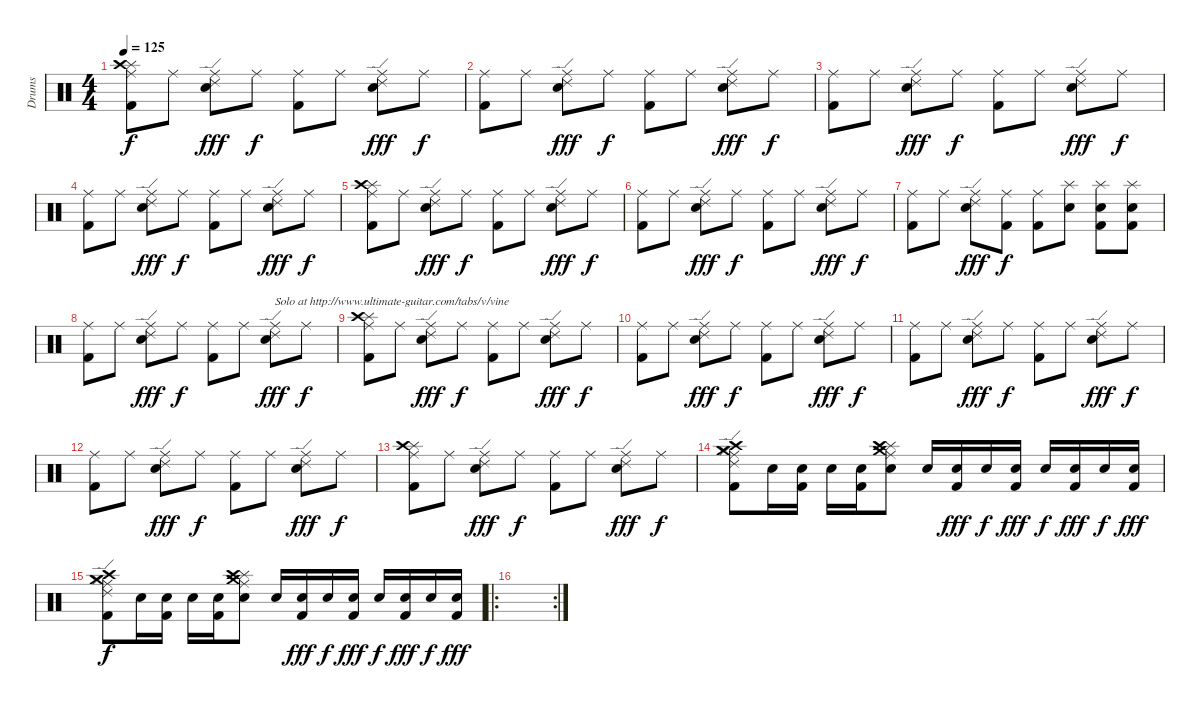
\track ("Drums" "Drums") {instrument percussion}
\staff {score}
\articulation defaults
\ts (4 4)
\tempo 125
\clef neutral
\ks c
("Ride (middle)" "Splash (hit)" "Crash high (hit)" "Kick (hit) 2").8{dy f} "Ride (middle)".8 ("Ride (middle)" "Electric Snare (hit)" "Ride (edge) 2").8{dy fff} "Ride (middle)".8{dy f} ("Ride (middle)" "Kick (hit) 2").8 "Ride (middle)".8 ("Ride (middle)" "Electric Snare (hit)" "Ride (edge) 2").8{dy fff} "Ride (middle)".8{dy f} |
("Ride (middle)" "Kick (hit) 2").8 "Ride (middle)".8 ("Ride (middle)" "Electric Snare (hit)" "Ride (edge) 2").8{dy fff} "Ride (middle)".8{dy f} ("Ride (middle)" "Kick (hit) 2").8 "Ride (middle)".8 ("Ride (middle)" "Electric Snare (hit)" "Ride (edge) 2").8{dy fff} "Ride (middle)".8{dy f} |
("Ride (middle)" "Kick (hit) 2").8 "Ride (middle)".8 ("Ride (middle)" "Electric Snare (hit)" "Ride (edge) 2").8{dy fff} "Ride (middle)".8{dy f} ("Ride (middle)" "Kick (hit) 2").8 "Ride (middle)".8 ("Ride (middle)" "Electric Snare (hit)" "Ride (edge) 2").8{dy fff} "Ride (middle)".8{dy f} |
("Ride (middle)" "Kick (hit) 2").8 "Ride (middle)".8 ("Ride (middle)" "Electric Snare (hit)" "Ride (edge) 2").8{dy fff} "Ride (middle)".8{dy f} ("Ride (middle)" "Kick (hit) 2").8 "Ride (middle)".8 ("Ride (middle)" "Electric Snare (hit)" "Ride (edge) 2").8{dy fff} "Ride (middle)".8{dy f} |
("Ride (middle)" "Splash (hit)" "Crash high (hit)" "Kick (hit) 2").8 "Ride (middle)".8 ("Ride (middle)" "Electric Snare (hit)" "Ride (edge) 2").8{dy fff} "Ride (middle)".8{dy f} ("Ride (middle)" "Kick (hit) 2").8 "Ride (middle)".8 ("Ride (middle)" "Electric Snare (hit)" "Ride (edge) 2").8{dy fff} "Ride (middle)".8{dy f} |
("Ride (middle)" "Kick (hit) 2").8 "Ride (middle)".8 ("Ride (middle)" "Electric Snare (hit)" "Ride (edge) 2").8{dy fff} "Ride (middle)".8{dy f} ("Ride (middle)" "Kick (hit) 2").8 "Ride (middle)".8 ("Ride (middle)" "Electric Snare (hit)" "Ride (edge) 2").8{dy fff} "Ride (middle)".8{dy f} |
("Ride (middle)" "Kick (hit) 2").8 "Ride (middle)".8 ("Ride (middle)" "Electric Snare (hit)" "Ride (edge) 2").8{dy fff} ("Ride (middle)" "Kick (hit) 2").8{dy f} ("Ride (middle)" "Kick (hit) 2").8 ("Splash (hit)" "Electric Snare (hit)").8 ("Splash (hit)" "Electric Snare (hit)" "Kick (hit) 2").8 ("Splash (hit)" "Electric Snare (hit)" "Kick (hit) 2").8 |
("Ride (middle)" "Kick (hit) 2").8 "Ride (middle)".8 ("Ride (middle)" "Electric Snare (hit)" "Ride (edge) 2").8{dy fff} "Ride (middle)".8{dy f} ("Ride (middle)" "Kick (hit) 2").8 "Ride (middle)".8 ("Ride (middle)" "Electric Snare (hit)" "Ride (edge) 2").8{txt "Solo at http://www.ultimate-guitar.com/tabs/v/vine" dy fff} "Ride (middle)".8{dy f} |
("Ride (middle)" "Splash (hit)" "Crash high (hit)" "Kick (hit) 2").8 "Ride (middle)".8 ("Ride (middle)" "Electric Snare (hit)" "Ride (edge) 2").8{dy fff} "Ride (middle)".8{dy f} ("Ride (middle)" "Kick (hit) 2").8 "Ride (middle)".8 ("Ride (middle)" "Electric Snare (hit)" "Ride (edge) 2").8{dy fff} "Ride (middle)".8{dy f} |
("Ride (middle)" "Kick (hit) 2").8 "Ride (middle)".8 ("Ride (middle)" "Electric Snare (hit)" "Ride (edge) 2").8{dy fff} "Ride (middle)".8{dy f} ("Ride (middle)" "Kick (hit) 2").8 "Ride (middle)".8 ("Ride (middle)" "Electric Snare (hit)" "Ride (edge) 2").8{dy fff} "Ride (middle)".8{dy f} |
("Ride (middle)" "Kick (hit) 2").8 "Ride (middle)".8 ("Ride (middle)" "Electric Snare (hit)" "Ride (edge) 2").8{dy fff} "Ride (middle)".8{dy f} ("Ride (middle)" "Kick (hit) 2").8 "Ride (middle)".8 ("Ride (middle)" "Electric Snare (hit)" "Ride (edge) 2").8{dy fff} "Ride (middle)".8{dy f} |
("Ride (middle)" "Kick (hit) 2").8 "Ride (middle)".8 ("Ride (middle)" "Electric Snare (hit)" "Ride (edge) 2").8{dy fff} "Ride (middle)".8{dy f} ("Ride (middle)" "Kick (hit) 2").8 "Ride (middle)".8 ("Ride (middle)" "Electric Snare (hit)" "Ride (edge) 2").8{dy fff} "Ride (middle)".8{dy f} |
("Ride (middle)" "Splash (hit)" "Crash high (hit)" "Kick (hit) 2").8 "Ride (middle)".8 ("Ride (middle)" "Electric Snare (hit)" "Ride (edge) 2").8{dy fff} "Ride (middle)".8{dy f} ("Ride (middle)" "Kick (hit) 2").8 "Ride (middle)".8 ("Ride (middle)" "Electric Snare (hit)" "Ride (edge) 2").8{dy fff} "Ride (middle)".8{dy f} |
("Kick (hit) 2" "Ride (middle)" "Ride (edge) 2" "Crash medium (hit)" "Hi-Hat (closed)" "Crash high (hit)").8 "Snare (hit) 2".16 ("Snare (hit) 2" "Kick (hit) 2").16 "Snare (hit) 2".16 ("Snare (hit) 2" "Kick (hit) 2").16 ("Splash (hit)" "Ride (middle)" "Snare (hit)" "Crash medium (hit)" "Crash high (hit)").8 "Snare (hit) 2".16 ("Snare (hit) 2" "Kick (hit) 2").16{dy fff} "Snare (hit) 2".16{dy f} ("Snare (hit) 2" "Kick (hit) 2").16{dy fff} "Snare (hit) 2".16{dy f} ("Snare (hit) 2" "Kick (hit) 2").16{dy fff} "Snare (hit) 2".16{dy f} ("Snare (hit) 2" "Kick (hit) 2").16{dy fff} |
("Kick (hit) 2" "Ride (middle)" "Ride (edge) 2" "Crash medium (hit)" "Hi-Hat (closed)" "Crash high (hit)").8{dy f} "Snare (hit) 2".16 ("Snare (hit) 2" "Kick (hit) 2").16 "Snare (hit) 2".16 ("Snare (hit) 2" "Kick (hit) 2").16 ("Splash (hit)" "Ride (middle)" "Snare (hit)" "Crash medium (hit)" "Crash high (hit)").8 "Snare (hit) 2".16 ("Snare (hit) 2" "Kick (hit) 2").16{dy fff} "Snare (hit) 2".16{dy f} ("Snare (hit) 2" "Kick (hit) 2").16{dy fff} "Snare (hit) 2".16{dy f} ("Snare (hit) 2" "Kick (hit) 2").16{dy fff} "Snare (hit) 2".16{dy f} ("Snare (hit) 2" "Kick (hit) 2").16{dy fff} |
\ro
\rc 2
